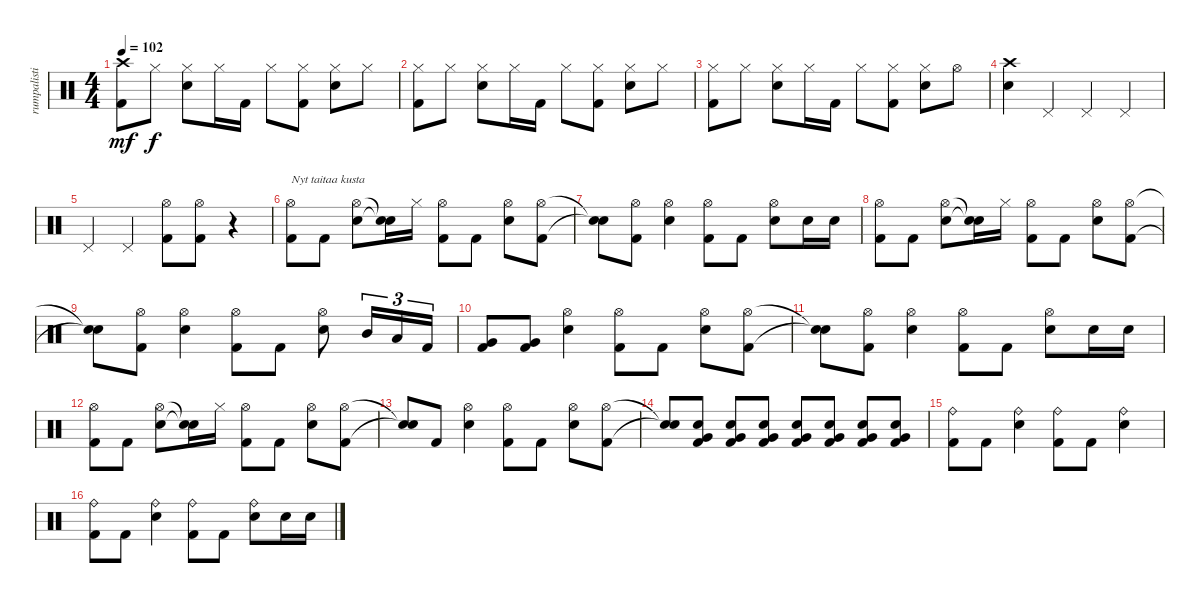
\track ("rumpalisti" "rumpalisti") {instrument percussion}
\staff {score}
\articulation defaults
\ts (4 4)
\tempo 102
\clef neutral
\ks c
("Kick (hit) 2" "Crash high (hit)").8{dy mf} "Hi-Hat (closed)".8{dy f} ("Hi-Hat (closed)" "Snare (hit) 2").8 "Hi-Hat (closed)".16 "Kick (hit) 2".16 "Hi-Hat (closed)".8 ("Kick (hit) 2" "Hi-Hat (closed)").8 ("Hi-Hat (closed)" "Snare (hit) 2").8 "Hi-Hat (closed)".8 |
("Kick (hit) 2" "Hi-Hat (closed)").8 "Hi-Hat (closed)".8 ("Hi-Hat (closed)" "Snare (hit) 2").8 "Hi-Hat (closed)".16 "Kick (hit) 2".16 "Hi-Hat (closed)".8 ("Kick (hit) 2" "Hi-Hat (closed)").8 ("Hi-Hat (closed)" "Snare (hit) 2").8 "Hi-Hat (closed)".8 |
("Kick (hit) 2" "Hi-Hat (closed)").8 "Hi-Hat (closed)".8 ("Hi-Hat (closed)" "Snare (hit) 2").8 "Hi-Hat (closed)".16 "Kick (hit) 2".16 "Hi-Hat (closed)".8 ("Kick (hit) 2" "Hi-Hat (closed)").8 ("Hi-Hat (closed)" "Snare (hit) 2").8 "Hi-Hat (open)".8 |
("Crash high (hit)" "Snare (hit) 2").4 "Pedal Hi-Hat (hit)".4 "Pedal Hi-Hat (hit)".4 "Pedal Hi-Hat (hit)".4 |
"Pedal Hi-Hat (hit)".4 "Pedal Hi-Hat (hit)".4 ("Kick (hit) 2" "Hi-Hat (open)").8 ("Kick (hit) 2" "Hi-Hat (open)").8 r.4 |
("Kick (hit) 2" "Hi-Hat (open)").8{txt "Nyt taitaa kusta"} "Kick (hit) 2".8 ("Hi-Hat (open)" "Snare (hit) 2").8 ("Snare (hit)"{t} "Snare (hit)"{t}).16 "Hi-Hat (closed)".16 ("Kick (hit) 2" "Hi-Hat (open)").8 "Kick (hit) 2".8 ("Hi-Hat (open)" "Snare (hit) 2").8 ("Kick (hit) 2" "Hi-Hat (open)").8 |
("Snare (hit)"{t} "Snare (hit)"{t}).8 ("Kick (hit) 2" "Hi-Hat (open)").8 ("Hi-Hat (open)" "Snare (hit) 2").4 ("Kick (hit) 2" "Hi-Hat (open)").8 "Kick (hit) 2".8 ("Hi-Hat (open)" "Snare (hit) 2").8 "Snare (hit) 2".16 "Snare (hit) 2".16 |
("Kick (hit) 2" "Hi-Hat (open)").8 "Kick (hit) 2".8 ("Hi-Hat (open)" "Snare (hit) 2").8 ("Snare (hit)"{t} "Snare (hit)"{t}).16 "Hi-Hat (closed)".16 ("Kick (hit) 2" "Hi-Hat (open)").8 "Kick (hit) 2".8 ("Hi-Hat (open)" "Snare (hit) 2").8 ("Kick (hit) 2" "Hi-Hat (open)").8 |
("Snare (hit)"{t} "Snare (hit)"{t}).8 ("Kick (hit) 2" "Hi-Hat (open)").8 ("Hi-Hat (open)" "Snare (hit) 2").4 ("Kick (hit) 2" "Hi-Hat (open)").8 "Kick (hit) 2".8 ("Hi-Hat (open)" "Snare (hit) 2").8 "Mid Tom (hit)".16{tu (3 2)} "Low Tom (hit)".16{tu (3 2)} "Kick (hit) 2".16{tu (3 2)} |
("Kick (hit) 2" "Very Low Tom (hit)").8 ("Kick (hit) 2" "Very Low Tom (hit)").8 ("Hi-Hat (open)" "Snare (hit) 2").4 ("Kick (hit) 2" "Hi-Hat (open)").8 "Kick (hit) 2".8 ("Hi-Hat (open)" "Snare (hit) 2").8 ("Kick (hit) 2" "Hi-Hat (open)").8 |
("Snare (hit)"{t} "Snare (hit)"{t}).8 ("Kick (hit) 2" "Hi-Hat (open)").8 ("Hi-Hat (open)" "Snare (hit) 2").4 ("Kick (hit) 2" "Hi-Hat (open)").8 "Kick (hit) 2".8 ("Hi-Hat (open)" "Snare (hit) 2").8 "Snare (hit) 2".16 "Snare (hit) 2".16 |
("Kick (hit) 2" "Hi-Hat (open)").8 "Kick (hit) 2".8 ("Hi-Hat (open)" "Snare (hit) 2").8 ("Snare (hit)"{t} "Snare (hit)"{t}).16 "Hi-Hat (closed)".16 ("Kick (hit) 2" "Hi-Hat (open)").8 "Kick (hit) 2".8 ("Hi-Hat (open)" "Snare (hit) 2").8 ("Kick (hit) 2" "Hi-Hat (open)").8 |
("Snare (hit)"{t} "Snare (hit)"{t}).8 "Kick (hit) 2".8 ("Hi-Hat (open)" "Snare (hit) 2").4 ("Kick (hit) 2" "Hi-Hat (open)").8 "Kick (hit) 2".8 ("Hi-Hat (open)" "Snare (hit) 2").8 ("Kick (hit) 2" "Hi-Hat (open)").8 |
("Snare (hit)"{t} "Snare (hit)"{t}).8 ("Kick (hit) 2" "Very Low Tom (hit)" "Snare (hit) 2").8 ("Kick (hit) 2" "Very Low Tom (hit)" "Snare (hit) 2").8 ("Kick (hit) 2" "Very Low Tom (hit)" "Snare (hit) 2").8 ("Kick (hit) 2" "Very Low Tom (hit)" "Snare (hit) 2").8 ("Kick (hit) 2" "Very Low Tom (hit)" "Snare (hit) 2").8 ("Kick (hit) 2" "Very Low Tom (hit)" "Snare (hit) 2").8 ("Kick (hit) 2" "Very Low Tom (hit)" "Snare (hit) 2").8 |
("Kick (hit) 2" "Ride (bell)").8 "Kick (hit) 2".8 ("Ride (bell)" "Snare (hit) 2").4 ("Kick (hit) 2" "Ride (bell)").8 "Kick (hit) 2".8 ("Ride (bell)" "Snare (hit) 2").4 |
("Kick (hit) 2" "Ride (bell)").8 "Kick (hit) 2".8 ("Ride (bell)" "Snare (hit) 2").4 ("Kick (hit) 2" "Ride (bell)").8 "Kick (hit) 2".8 ("Ride (bell)" "Snare (hit) 2").8 "Snare (hit) 2".16 "Snare (hit) 2".16
